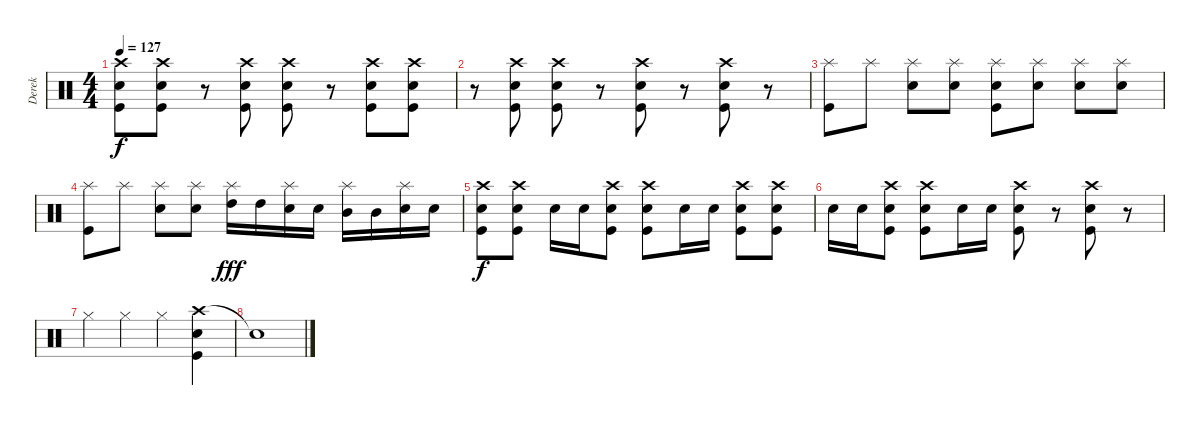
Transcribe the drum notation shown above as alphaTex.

\track ("Derek" "Derek") {instrument percussion}
\staff {score}
\articulation defaults
\ts (4 4)
\tempo 127
\clef neutral
\ks c
("Crash high (hit)" "Snare (hit) 2" "Kick (hit)").8{dy f} ("Crash high (hit)" "Snare (hit) 2" "Kick (hit)").8 r.8 ("Crash high (hit)" "Snare (hit) 2" "Kick (hit)").8 ("Crash high (hit)" "Snare (hit) 2" "Kick (hit)").8 r.8 ("Crash high (hit)" "Snare (hit) 2" "Kick (hit)").8 ("Crash high (hit)" "Snare (hit) 2" "Kick (hit)").8 |
r.8 ("Crash high (hit)" "Snare (hit) 2" "Kick (hit)").8 ("Crash high (hit)" "Snare (hit) 2" "Kick (hit)").8 r.8 ("Crash high (hit)" "Snare (hit) 2" "Kick (hit)").8 r.8 ("Crash high (hit)" "Snare (hit) 2" "Kick (hit)").8 r.8 |
("Splash (hit)" "Kick (hit)").8 "Splash (hit)".8 ("Splash (hit)" "Snare (hit) 2").8 ("Splash (hit)" "Snare (hit) 2").8 ("Splash (hit)" "Snare (hit) 2" "Kick (hit)").8 ("Splash (hit)" "Snare (hit) 2").8 ("Splash (hit)" "Snare (hit) 2").8 ("Splash (hit)" "Snare (hit) 2").8 |
("Splash (hit)" "Kick (hit)").8 "Splash (hit)".8 ("Splash (hit)" "Snare (hit) 2").8 ("Splash (hit)" "Snare (hit) 2").8 ("Splash (hit)" "High Tom (hit)").16{dy fff} "High Tom (hit)".16 ("Splash (hit)" "Snare (hit) 2").16 "Snare (hit) 2".16 ("Splash (hit)" "Mid Tom (hit)").16 "Mid Tom (hit)".16 ("Splash (hit)" "Snare (hit) 2").16 "Snare (hit) 2".16 |
("Crash high (hit)" "Snare (hit) 2" "Kick (hit)").8{dy f} ("Crash high (hit)" "Snare (hit) 2" "Kick (hit)").8 "Snare (hit) 2".16 "Snare (hit) 2".16 ("Crash high (hit)" "Snare (hit) 2" "Kick (hit)").8 ("Crash high (hit)" "Snare (hit) 2" "Kick (hit)").8 "Snare (hit) 2".16 "Snare (hit) 2".16 ("Crash high (hit)" "Snare (hit) 2" "Kick (hit)").8 ("Crash high (hit)" "Snare (hit) 2" "Kick (hit)").8 |
"Snare (hit) 2".16 "Snare (hit) 2".16 ("Crash high (hit)" "Snare (hit) 2" "Kick (hit)").8 ("Crash high (hit)" "Snare (hit) 2" "Kick (hit)").8 "Snare (hit) 2".16 "Snare (hit) 2".16 ("Crash high (hit)" "Snare (hit) 2" "Kick (hit)").8 r.8 ("Crash high (hit)" "Snare (hit) 2" "Kick (hit)").8 r.8 |
"Hi-Hat (closed)".4 "Hi-Hat (closed)".4 "Hi-Hat (closed)".4 ("Crash high (hit)" "Snare (hit) 2" "Kick (hit)").4 |
"Snare (hit)"{t}.1
